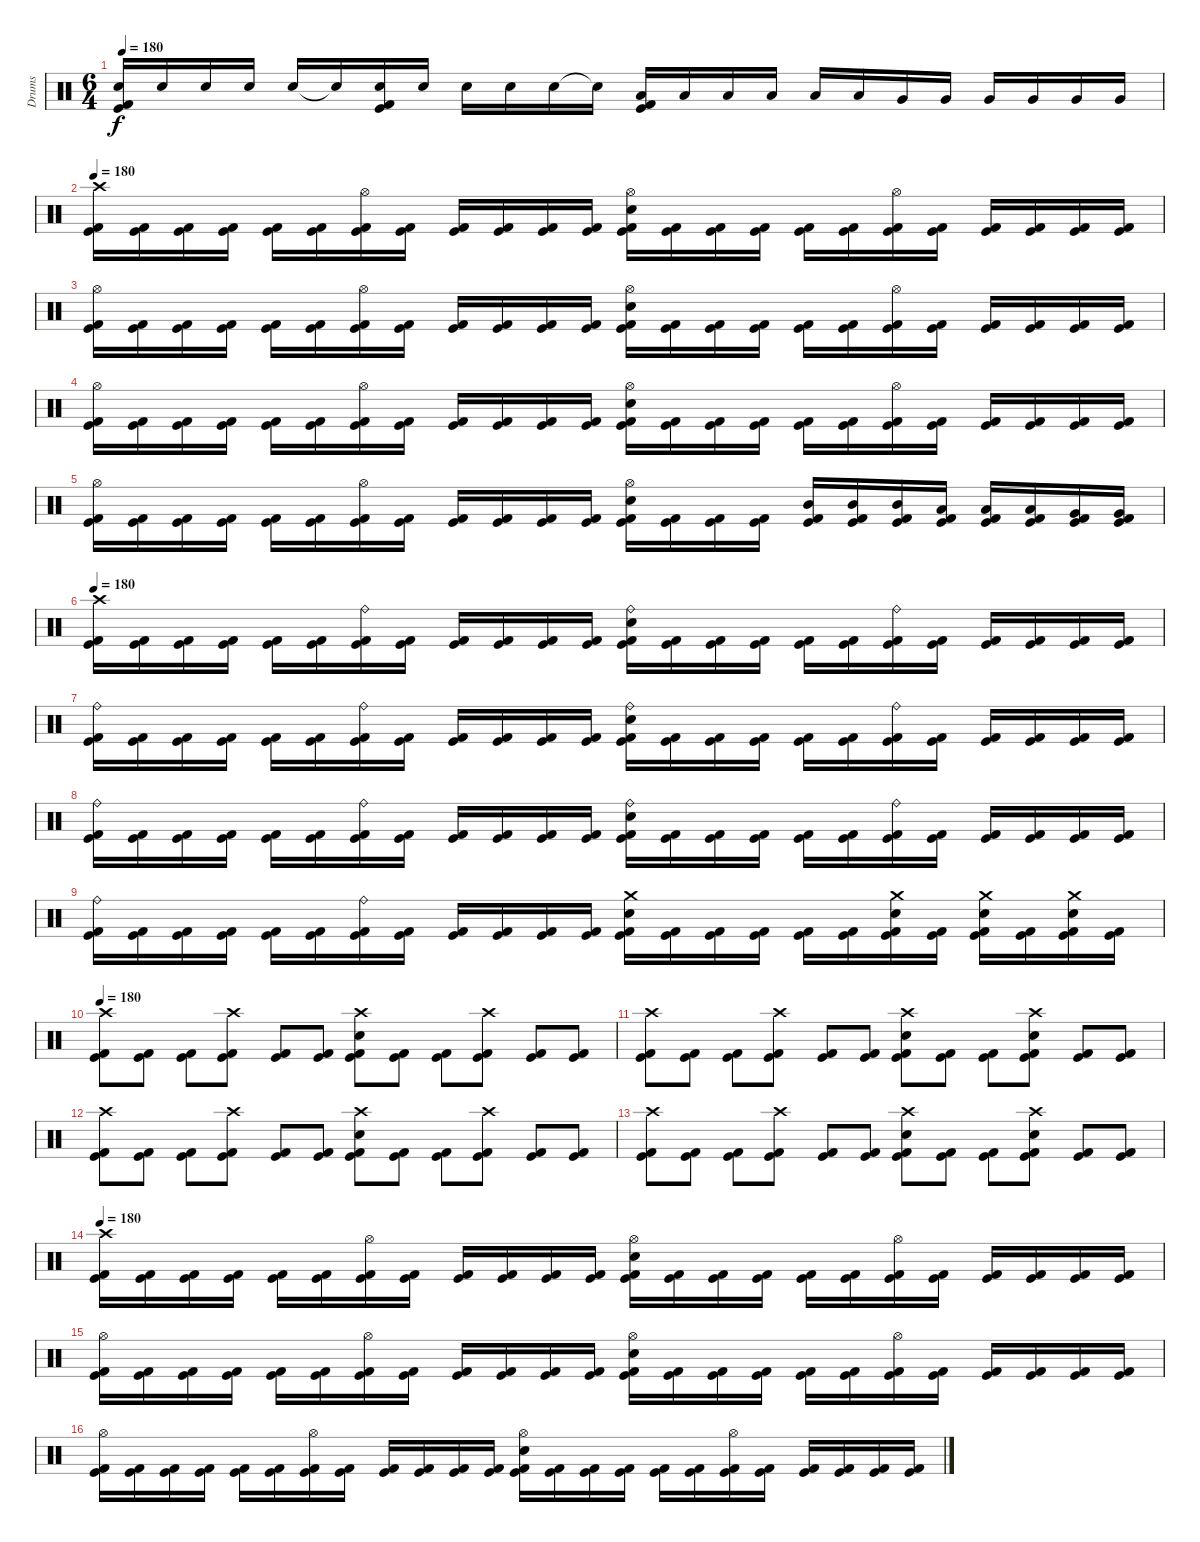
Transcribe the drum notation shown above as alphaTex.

\track ("Drums" "Drums") {instrument percussion}
\staff {score}
\articulation defaults
\ts (6 4)
\tempo 180
\clef neutral
\ks c
("Electric Snare (hit)" "Kick (hit)" "Kick (hit) 2").16{dy f} "Electric Snare (hit)".16 "Electric Snare (hit)".16 "Electric Snare (hit)".16 "Electric Snare (hit)".16 "Electric Snare (hit)"{t}.16 ("Electric Snare (hit)" "Kick (hit)" "Kick (hit) 2").16 "Electric Snare (hit)".16 "Electric Snare (hit)".16 "Electric Snare (hit)".16 "Electric Snare (hit)".16 "Snare (hit)"{t}.16 ("Low Tom (hit)" "Kick (hit)" "Kick (hit) 2").16 "Low Tom (hit)".16 "Low Tom (hit)".16 "Low Tom (hit)".16 "Low Tom (hit)".16 "Low Tom (hit)".16 "Very Low Tom (hit)".16 "Very Low Tom (hit)".16 "Very Low Tom (hit)".16 "Very Low Tom (hit)".16 "Very Low Tom (hit)".16 "Very Low Tom (hit)".16 |
\tempo 180
("Crash high (hit)" "Kick (hit)" "Kick (hit) 2").16 ("Kick (hit)" "Kick (hit) 2").16 ("Kick (hit)" "Kick (hit) 2").16 ("Kick (hit)" "Kick (hit) 2").16 ("Kick (hit)" "Kick (hit) 2").16 ("Kick (hit)" "Kick (hit) 2").16 ("Hi-Hat (open)" "Kick (hit)" "Kick (hit) 2").16 ("Kick (hit)" "Kick (hit) 2").16 ("Kick (hit)" "Kick (hit) 2").16 ("Kick (hit)" "Kick (hit) 2").16 ("Kick (hit)" "Kick (hit) 2").16 ("Kick (hit)" "Kick (hit) 2").16 ("Hi-Hat (open)" "Electric Snare (hit)" "Kick (hit)" "Kick (hit) 2").16 ("Kick (hit)" "Kick (hit) 2").16 ("Kick (hit)" "Kick (hit) 2").16 ("Kick (hit)" "Kick (hit) 2").16 ("Kick (hit)" "Kick (hit) 2").16 ("Kick (hit)" "Kick (hit) 2").16 ("Hi-Hat (open)" "Kick (hit)" "Kick (hit) 2").16 ("Kick (hit)" "Kick (hit) 2").16 ("Kick (hit)" "Kick (hit) 2").16 ("Kick (hit)" "Kick (hit) 2").16 ("Kick (hit)" "Kick (hit) 2").16 ("Kick (hit)" "Kick (hit) 2").16 |
("Hi-Hat (open)" "Kick (hit)" "Kick (hit) 2").16 ("Kick (hit)" "Kick (hit) 2").16 ("Kick (hit)" "Kick (hit) 2").16 ("Kick (hit)" "Kick (hit) 2").16 ("Kick (hit)" "Kick (hit) 2").16 ("Kick (hit)" "Kick (hit) 2").16 ("Hi-Hat (open)" "Kick (hit)" "Kick (hit) 2").16 ("Kick (hit)" "Kick (hit) 2").16 ("Kick (hit)" "Kick (hit) 2").16 ("Kick (hit)" "Kick (hit) 2").16 ("Kick (hit)" "Kick (hit) 2").16 ("Kick (hit)" "Kick (hit) 2").16 ("Hi-Hat (open)" "Electric Snare (hit)" "Kick (hit)" "Kick (hit) 2").16 ("Kick (hit)" "Kick (hit) 2").16 ("Kick (hit)" "Kick (hit) 2").16 ("Kick (hit)" "Kick (hit) 2").16 ("Kick (hit)" "Kick (hit) 2").16 ("Kick (hit)" "Kick (hit) 2").16 ("Hi-Hat (open)" "Kick (hit)" "Kick (hit) 2").16 ("Kick (hit)" "Kick (hit) 2").16 ("Kick (hit)" "Kick (hit) 2").16 ("Kick (hit)" "Kick (hit) 2").16 ("Kick (hit)" "Kick (hit) 2").16 ("Kick (hit)" "Kick (hit) 2").16 |
("Hi-Hat (open)" "Kick (hit)" "Kick (hit) 2").16 ("Kick (hit)" "Kick (hit) 2").16 ("Kick (hit)" "Kick (hit) 2").16 ("Kick (hit)" "Kick (hit) 2").16 ("Kick (hit)" "Kick (hit) 2").16 ("Kick (hit)" "Kick (hit) 2").16 ("Hi-Hat (open)" "Kick (hit)" "Kick (hit) 2").16 ("Kick (hit)" "Kick (hit) 2").16 ("Kick (hit)" "Kick (hit) 2").16 ("Kick (hit)" "Kick (hit) 2").16 ("Kick (hit)" "Kick (hit) 2").16 ("Kick (hit)" "Kick (hit) 2").16 ("Hi-Hat (open)" "Electric Snare (hit)" "Kick (hit)" "Kick (hit) 2").16 ("Kick (hit)" "Kick (hit) 2").16 ("Kick (hit)" "Kick (hit) 2").16 ("Kick (hit)" "Kick (hit) 2").16 ("Kick (hit)" "Kick (hit) 2").16 ("Kick (hit)" "Kick (hit) 2").16 ("Hi-Hat (open)" "Kick (hit)" "Kick (hit) 2").16 ("Kick (hit)" "Kick (hit) 2").16 ("Kick (hit)" "Kick (hit) 2").16 ("Kick (hit)" "Kick (hit) 2").16 ("Kick (hit)" "Kick (hit) 2").16 ("Kick (hit)" "Kick (hit) 2").16 |
("Hi-Hat (open)" "Kick (hit)" "Kick (hit) 2").16 ("Kick (hit)" "Kick (hit) 2").16 ("Kick (hit)" "Kick (hit) 2").16 ("Kick (hit)" "Kick (hit) 2").16 ("Kick (hit)" "Kick (hit) 2").16 ("Kick (hit)" "Kick (hit) 2").16 ("Hi-Hat (open)" "Kick (hit)" "Kick (hit) 2").16 ("Kick (hit)" "Kick (hit) 2").16 ("Kick (hit)" "Kick (hit) 2").16 ("Kick (hit)" "Kick (hit) 2").16 ("Kick (hit)" "Kick (hit) 2").16 ("Kick (hit)" "Kick (hit) 2").16 ("Hi-Hat (open)" "Electric Snare (hit)" "Kick (hit)" "Kick (hit) 2").16 ("Kick (hit)" "Kick (hit) 2").16 ("Kick (hit)" "Kick (hit) 2").16 ("Kick (hit)" "Kick (hit) 2").16 ("Mid Tom (hit)" "Kick (hit)" "Kick (hit) 2").16 ("Mid Tom (hit)" "Kick (hit)" "Kick (hit) 2").16 ("Mid Tom (hit)" "Kick (hit)" "Kick (hit) 2").16 ("Low Tom (hit)" "Kick (hit)" "Kick (hit) 2").16 ("Low Tom (hit)" "Kick (hit)" "Kick (hit) 2").16 ("Low Tom (hit)" "Kick (hit)" "Kick (hit) 2").16 ("Very Low Tom (hit)" "Kick (hit)" "Kick (hit) 2").16 ("Very Low Tom (hit)" "Kick (hit)" "Kick (hit) 2").16 |
\tempo 180
("Crash high (hit)" "Kick (hit)" "Kick (hit) 2").16 ("Kick (hit)" "Kick (hit) 2").16 ("Kick (hit)" "Kick (hit) 2").16 ("Kick (hit)" "Kick (hit) 2").16 ("Kick (hit)" "Kick (hit) 2").16 ("Kick (hit)" "Kick (hit) 2").16 ("Ride (bell)" "Kick (hit)" "Kick (hit) 2").16 ("Kick (hit)" "Kick (hit) 2").16 ("Kick (hit)" "Kick (hit) 2").16 ("Kick (hit)" "Kick (hit) 2").16 ("Kick (hit)" "Kick (hit) 2").16 ("Kick (hit)" "Kick (hit) 2").16 ("Ride (bell)" "Electric Snare (hit)" "Kick (hit)" "Kick (hit) 2").16 ("Kick (hit)" "Kick (hit) 2").16 ("Kick (hit)" "Kick (hit) 2").16 ("Kick (hit)" "Kick (hit) 2").16 ("Kick (hit)" "Kick (hit) 2").16 ("Kick (hit)" "Kick (hit) 2").16 ("Ride (bell)" "Kick (hit)" "Kick (hit) 2").16 ("Kick (hit)" "Kick (hit) 2").16 ("Kick (hit)" "Kick (hit) 2").16 ("Kick (hit)" "Kick (hit) 2").16 ("Kick (hit)" "Kick (hit) 2").16 ("Kick (hit)" "Kick (hit) 2").16 |
("Ride (bell)" "Kick (hit)" "Kick (hit) 2").16 ("Kick (hit)" "Kick (hit) 2").16 ("Kick (hit)" "Kick (hit) 2").16 ("Kick (hit)" "Kick (hit) 2").16 ("Kick (hit)" "Kick (hit) 2").16 ("Kick (hit)" "Kick (hit) 2").16 ("Ride (bell)" "Kick (hit)" "Kick (hit) 2").16 ("Kick (hit)" "Kick (hit) 2").16 ("Kick (hit)" "Kick (hit) 2").16 ("Kick (hit)" "Kick (hit) 2").16 ("Kick (hit)" "Kick (hit) 2").16 ("Kick (hit)" "Kick (hit) 2").16 ("Ride (bell)" "Electric Snare (hit)" "Kick (hit)" "Kick (hit) 2").16 ("Kick (hit)" "Kick (hit) 2").16 ("Kick (hit)" "Kick (hit) 2").16 ("Kick (hit)" "Kick (hit) 2").16 ("Kick (hit)" "Kick (hit) 2").16 ("Kick (hit)" "Kick (hit) 2").16 ("Ride (bell)" "Kick (hit)" "Kick (hit) 2").16 ("Kick (hit)" "Kick (hit) 2").16 ("Kick (hit)" "Kick (hit) 2").16 ("Kick (hit)" "Kick (hit) 2").16 ("Kick (hit)" "Kick (hit) 2").16 ("Kick (hit)" "Kick (hit) 2").16 |
("Ride (bell)" "Kick (hit)" "Kick (hit) 2").16 ("Kick (hit)" "Kick (hit) 2").16 ("Kick (hit)" "Kick (hit) 2").16 ("Kick (hit)" "Kick (hit) 2").16 ("Kick (hit)" "Kick (hit) 2").16 ("Kick (hit)" "Kick (hit) 2").16 ("Ride (bell)" "Kick (hit)" "Kick (hit) 2").16 ("Kick (hit)" "Kick (hit) 2").16 ("Kick (hit)" "Kick (hit) 2").16 ("Kick (hit)" "Kick (hit) 2").16 ("Kick (hit)" "Kick (hit) 2").16 ("Kick (hit)" "Kick (hit) 2").16 ("Ride (bell)" "Electric Snare (hit)" "Kick (hit)" "Kick (hit) 2").16 ("Kick (hit)" "Kick (hit) 2").16 ("Kick (hit)" "Kick (hit) 2").16 ("Kick (hit)" "Kick (hit) 2").16 ("Kick (hit)" "Kick (hit) 2").16 ("Kick (hit)" "Kick (hit) 2").16 ("Ride (bell)" "Kick (hit)" "Kick (hit) 2").16 ("Kick (hit)" "Kick (hit) 2").16 ("Kick (hit)" "Kick (hit) 2").16 ("Kick (hit)" "Kick (hit) 2").16 ("Kick (hit)" "Kick (hit) 2").16 ("Kick (hit)" "Kick (hit) 2").16 |
("Ride (bell)" "Kick (hit)" "Kick (hit) 2").16 ("Kick (hit)" "Kick (hit) 2").16 ("Kick (hit)" "Kick (hit) 2").16 ("Kick (hit)" "Kick (hit) 2").16 ("Kick (hit)" "Kick (hit) 2").16 ("Kick (hit)" "Kick (hit) 2").16 ("Ride (bell)" "Kick (hit)" "Kick (hit) 2").16 ("Kick (hit)" "Kick (hit) 2").16 ("Kick (hit)" "Kick (hit) 2").16 ("Kick (hit)" "Kick (hit) 2").16 ("Kick (hit)" "Kick (hit) 2").16 ("Kick (hit)" "Kick (hit) 2").16 ("Crash medium (hit)" "Electric Snare (hit)" "Kick (hit)" "Kick (hit) 2").16 ("Kick (hit)" "Kick (hit) 2").16 ("Kick (hit)" "Kick (hit) 2").16 ("Kick (hit)" "Kick (hit) 2").16 ("Kick (hit)" "Kick (hit) 2").16 ("Kick (hit)" "Kick (hit) 2").16 ("Crash medium (hit)" "Electric Snare (hit)" "Kick (hit)" "Kick (hit) 2").16 ("Kick (hit)" "Kick (hit) 2").16 ("Crash medium (hit)" "Electric Snare (hit)" "Kick (hit)" "Kick (hit) 2").16 ("Kick (hit)" "Kick (hit) 2").16 ("Crash medium (hit)" "Electric Snare (hit)" "Kick (hit)" "Kick (hit) 2").16 ("Kick (hit)" "Kick (hit) 2").16 |
\tempo 180
("Crash high (hit)" "Kick (hit)" "Kick (hit) 2").8 ("Kick (hit)" "Kick (hit) 2").8 ("Kick (hit)" "Kick (hit) 2").8 ("Crash high (hit)" "Kick (hit)" "Kick (hit) 2").8 ("Kick (hit)" "Kick (hit) 2").8 ("Kick (hit)" "Kick (hit) 2").8 ("Crash high (hit)" "Electric Snare (hit)" "Kick (hit)" "Kick (hit) 2").8 ("Kick (hit)" "Kick (hit) 2").8 ("Kick (hit)" "Kick (hit) 2").8 ("Crash high (hit)" "Kick (hit)" "Kick (hit) 2").8 ("Kick (hit)" "Kick (hit) 2").8 ("Kick (hit)" "Kick (hit) 2").8 |
("Crash high (hit)" "Kick (hit)" "Kick (hit) 2").8 ("Kick (hit)" "Kick (hit) 2").8 ("Kick (hit)" "Kick (hit) 2").8 ("Crash high (hit)" "Kick (hit)" "Kick (hit) 2").8 ("Kick (hit)" "Kick (hit) 2").8 ("Kick (hit)" "Kick (hit) 2").8 ("Crash high (hit)" "Electric Snare (hit)" "Kick (hit)" "Kick (hit) 2").8 ("Kick (hit)" "Kick (hit) 2").8 ("Kick (hit)" "Kick (hit) 2").8 ("Crash high (hit)" "Electric Snare (hit)" "Kick (hit)" "Kick (hit) 2").8 ("Kick (hit)" "Kick (hit) 2").8 ("Kick (hit)" "Kick (hit) 2").8 |
("Crash high (hit)" "Kick (hit)" "Kick (hit) 2").8 ("Kick (hit)" "Kick (hit) 2").8 ("Kick (hit)" "Kick (hit) 2").8 ("Crash high (hit)" "Kick (hit)" "Kick (hit) 2").8 ("Kick (hit)" "Kick (hit) 2").8 ("Kick (hit)" "Kick (hit) 2").8 ("Crash high (hit)" "Electric Snare (hit)" "Kick (hit)" "Kick (hit) 2").8 ("Kick (hit)" "Kick (hit) 2").8 ("Kick (hit)" "Kick (hit) 2").8 ("Crash high (hit)" "Kick (hit)" "Kick (hit) 2").8 ("Kick (hit)" "Kick (hit) 2").8 ("Kick (hit)" "Kick (hit) 2").8 |
("Crash high (hit)" "Kick (hit)" "Kick (hit) 2").8 ("Kick (hit)" "Kick (hit) 2").8 ("Kick (hit)" "Kick (hit) 2").8 ("Crash high (hit)" "Kick (hit)" "Kick (hit) 2").8 ("Kick (hit)" "Kick (hit) 2").8 ("Kick (hit)" "Kick (hit) 2").8 ("Crash high (hit)" "Electric Snare (hit)" "Kick (hit)" "Kick (hit) 2").8 ("Kick (hit)" "Kick (hit) 2").8 ("Kick (hit)" "Kick (hit) 2").8 ("Crash high (hit)" "Electric Snare (hit)" "Kick (hit)" "Kick (hit) 2").8 ("Kick (hit)" "Kick (hit) 2").8 ("Kick (hit)" "Kick (hit) 2").8 |
\tempo 180
("Crash high (hit)" "Kick (hit)" "Kick (hit) 2").16 ("Kick (hit)" "Kick (hit) 2").16 ("Kick (hit)" "Kick (hit) 2").16 ("Kick (hit)" "Kick (hit) 2").16 ("Kick (hit)" "Kick (hit) 2").16 ("Kick (hit)" "Kick (hit) 2").16 ("Hi-Hat (open)" "Kick (hit)" "Kick (hit) 2").16 ("Kick (hit)" "Kick (hit) 2").16 ("Kick (hit)" "Kick (hit) 2").16 ("Kick (hit)" "Kick (hit) 2").16 ("Kick (hit)" "Kick (hit) 2").16 ("Kick (hit)" "Kick (hit) 2").16 ("Hi-Hat (open)" "Electric Snare (hit)" "Kick (hit)" "Kick (hit) 2").16 ("Kick (hit)" "Kick (hit) 2").16 ("Kick (hit)" "Kick (hit) 2").16 ("Kick (hit)" "Kick (hit) 2").16 ("Kick (hit)" "Kick (hit) 2").16 ("Kick (hit)" "Kick (hit) 2").16 ("Hi-Hat (open)" "Kick (hit)" "Kick (hit) 2").16 ("Kick (hit)" "Kick (hit) 2").16 ("Kick (hit)" "Kick (hit) 2").16 ("Kick (hit)" "Kick (hit) 2").16 ("Kick (hit)" "Kick (hit) 2").16 ("Kick (hit)" "Kick (hit) 2").16 |
("Hi-Hat (open)" "Kick (hit)" "Kick (hit) 2").16 ("Kick (hit)" "Kick (hit) 2").16 ("Kick (hit)" "Kick (hit) 2").16 ("Kick (hit)" "Kick (hit) 2").16 ("Kick (hit)" "Kick (hit) 2").16 ("Kick (hit)" "Kick (hit) 2").16 ("Hi-Hat (open)" "Kick (hit)" "Kick (hit) 2").16 ("Kick (hit)" "Kick (hit) 2").16 ("Kick (hit)" "Kick (hit) 2").16 ("Kick (hit)" "Kick (hit) 2").16 ("Kick (hit)" "Kick (hit) 2").16 ("Kick (hit)" "Kick (hit) 2").16 ("Hi-Hat (open)" "Electric Snare (hit)" "Kick (hit)" "Kick (hit) 2").16 ("Kick (hit)" "Kick (hit) 2").16 ("Kick (hit)" "Kick (hit) 2").16 ("Kick (hit)" "Kick (hit) 2").16 ("Kick (hit)" "Kick (hit) 2").16 ("Kick (hit)" "Kick (hit) 2").16 ("Hi-Hat (open)" "Kick (hit)" "Kick (hit) 2").16 ("Kick (hit)" "Kick (hit) 2").16 ("Kick (hit)" "Kick (hit) 2").16 ("Kick (hit)" "Kick (hit) 2").16 ("Kick (hit)" "Kick (hit) 2").16 ("Kick (hit)" "Kick (hit) 2").16 |
("Hi-Hat (open)" "Kick (hit)" "Kick (hit) 2").16 ("Kick (hit)" "Kick (hit) 2").16 ("Kick (hit)" "Kick (hit) 2").16 ("Kick (hit)" "Kick (hit) 2").16 ("Kick (hit)" "Kick (hit) 2").16 ("Kick (hit)" "Kick (hit) 2").16 ("Hi-Hat (open)" "Kick (hit)" "Kick (hit) 2").16 ("Kick (hit)" "Kick (hit) 2").16 ("Kick (hit)" "Kick (hit) 2").16 ("Kick (hit)" "Kick (hit) 2").16 ("Kick (hit)" "Kick (hit) 2").16 ("Kick (hit)" "Kick (hit) 2").16 ("Hi-Hat (open)" "Electric Snare (hit)" "Kick (hit)" "Kick (hit) 2").16 ("Kick (hit)" "Kick (hit) 2").16 ("Kick (hit)" "Kick (hit) 2").16 ("Kick (hit)" "Kick (hit) 2").16 ("Kick (hit)" "Kick (hit) 2").16 ("Kick (hit)" "Kick (hit) 2").16 ("Hi-Hat (open)" "Kick (hit)" "Kick (hit) 2").16 ("Kick (hit)" "Kick (hit) 2").16 ("Kick (hit)" "Kick (hit) 2").16 ("Kick (hit)" "Kick (hit) 2").16 ("Kick (hit)" "Kick (hit) 2").16 ("Kick (hit)" "Kick (hit) 2").16
